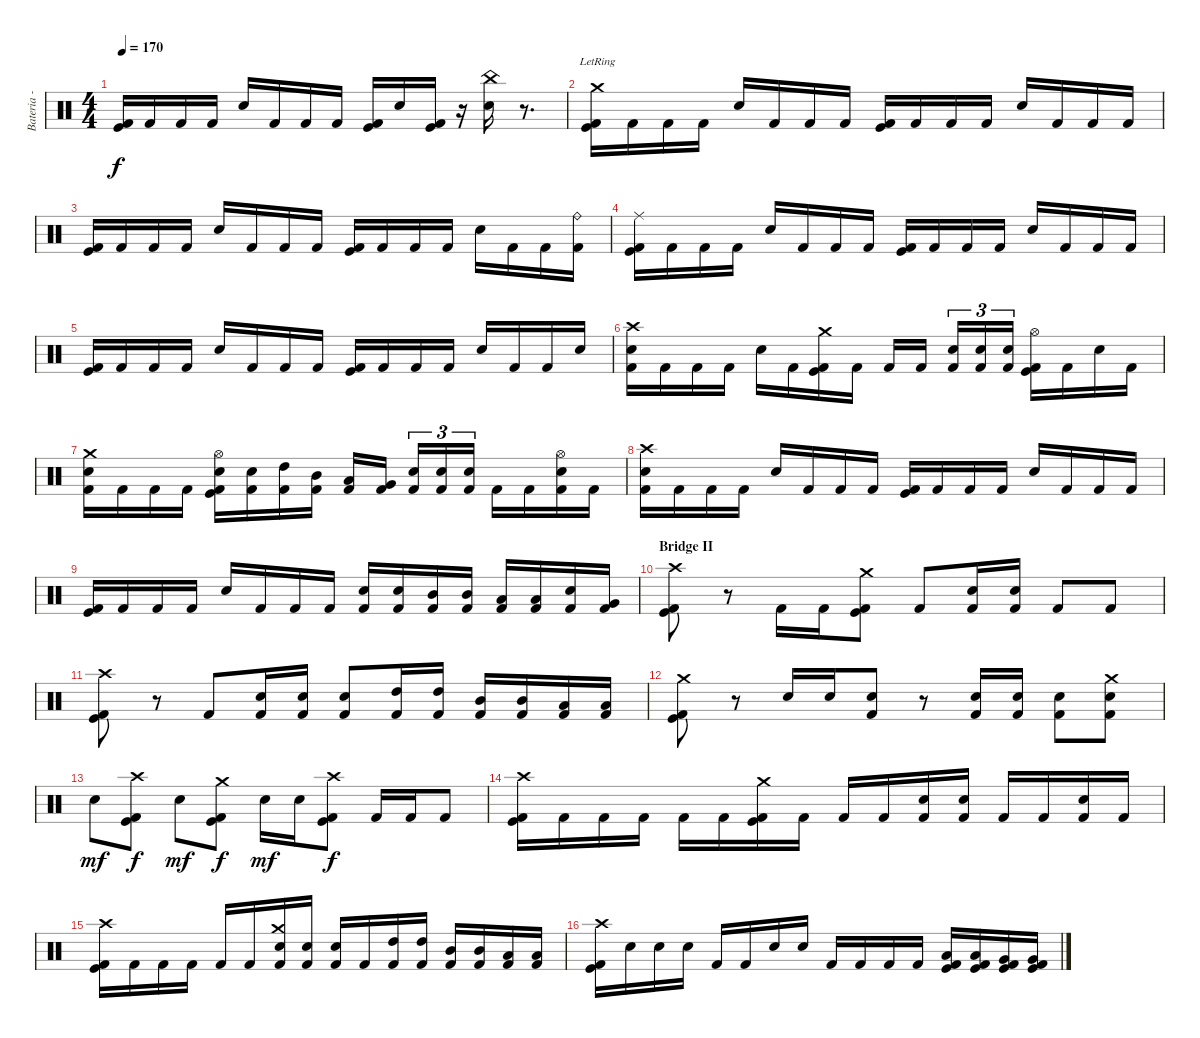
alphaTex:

\track ("Bateria - Drums" "Bateria - ") {instrument percussion}
\staff {score}
\articulation defaults
\ts (4 4)
\tempo 170
\clef neutral
\ks c
("Kick (hit)" "Kick (hit) 2").16{dy f} "Kick (hit) 2".16 "Kick (hit) 2".16 "Kick (hit) 2".16 "Snare (hit) 2".16 "Kick (hit) 2".16 "Kick (hit) 2".16 "Kick (hit) 2".16 ("Kick (hit)" "Kick (hit) 2").16 "Snare (hit) 2".16 ("Kick (hit)" "Kick (hit) 2").16 r.16 ("China (hit)" "Snare (hit) 2").16 r.8{d} |
("Crash medium (hit)"{lr} "Kick (hit)" "Kick (hit) 2").16 "Kick (hit) 2".16 "Kick (hit) 2".16 "Kick (hit) 2".16 "Snare (hit) 2".16 "Kick (hit) 2".16 "Kick (hit) 2".16 "Kick (hit) 2".16 ("Kick (hit)" "Kick (hit) 2").16 "Kick (hit) 2".16 "Kick (hit) 2".16 "Kick (hit) 2".16 "Snare (hit) 2".16 "Kick (hit) 2".16 "Kick (hit) 2".16 "Kick (hit) 2".16 |
("Kick (hit)" "Kick (hit) 2").16 "Kick (hit) 2".16 "Kick (hit) 2".16 "Kick (hit) 2".16 "Snare (hit) 2".16 "Kick (hit) 2".16 "Kick (hit) 2".16 "Kick (hit) 2".16 ("Kick (hit)" "Kick (hit) 2").16 "Kick (hit) 2".16 "Kick (hit) 2".16 "Kick (hit) 2".16 "Snare (hit) 2".16 "Kick (hit) 2".16 "Kick (hit) 2".16 ("Ride (bell)" "Kick (hit) 2").16 |
("Ride (middle)" "Kick (hit)" "Kick (hit) 2").16 "Kick (hit) 2".16 "Kick (hit) 2".16 "Kick (hit) 2".16 "Snare (hit) 2".16 "Kick (hit) 2".16 "Kick (hit) 2".16 "Kick (hit) 2".16 ("Kick (hit)" "Kick (hit) 2").16 "Kick (hit) 2".16 "Kick (hit) 2".16 "Kick (hit) 2".16 "Snare (hit) 2".16 "Kick (hit) 2".16 "Kick (hit) 2".16 "Kick (hit) 2".16 |
("Kick (hit)" "Kick (hit) 2").16 "Kick (hit) 2".16 "Kick (hit) 2".16 "Kick (hit) 2".16 "Snare (hit) 2".16 "Kick (hit) 2".16 "Kick (hit) 2".16 "Kick (hit) 2".16 ("Kick (hit)" "Kick (hit) 2").16 "Kick (hit) 2".16 "Kick (hit) 2".16 "Kick (hit) 2".16 "Snare (hit) 2".16 "Kick (hit) 2".16 "Kick (hit) 2".16 "Snare (hit) 2".16 |
("Crash high (hit)" "Snare (hit) 2" "Kick (hit) 2").16 "Kick (hit) 2".16 "Kick (hit) 2".16 "Kick (hit) 2".16 "Snare (hit) 2".16 "Kick (hit) 2".16 ("Crash medium (hit)" "Kick (hit)" "Kick (hit) 2").16 "Kick (hit) 2".16 "Kick (hit) 2".16 "Kick (hit) 2".16 ("Snare (hit) 2" "Kick (hit) 2").16{tu (3 2)} ("Snare (hit) 2" "Kick (hit) 2").16{tu (3 2)} ("Snare (hit) 2" "Kick (hit) 2").16{tu (3 2)} ("Hi-Hat (open)" "Kick (hit)" "Kick (hit) 2").16 "Kick (hit) 2".16 "Snare (hit) 2".16 "Kick (hit) 2".16 |
("Crash medium (hit)" "Snare (hit) 2" "Kick (hit) 2").16 "Kick (hit) 2".16 "Kick (hit) 2".16 "Kick (hit) 2".16 ("Hi-Hat (open)" "Snare (hit) 2" "Kick (hit)" "Kick (hit) 2").16 ("Snare (hit) 2" "Kick (hit) 2").16 ("High Tom (hit)" "Kick (hit) 2").16 ("Mid Tom (hit)" "Kick (hit) 2").16 ("Low Tom (hit)" "Kick (hit) 2").16 ("Very Low Tom (hit)" "Kick (hit) 2").16 ("Electric Snare (hit)" "Kick (hit) 2").16{tu (3 2)} ("Electric Snare (hit)" "Kick (hit) 2").16{tu (3 2)} ("Electric Snare (hit)" "Kick (hit) 2").16{tu (3 2)} "Kick (hit) 2".16 "Kick (hit) 2".16 ("Hi-Hat (open)" "Snare (hit) 2" "Kick (hit) 2").16 "Kick (hit) 2".16 |
("Crash high (hit)" "Snare (hit) 2" "Kick (hit) 2").16 "Kick (hit) 2".16 "Kick (hit) 2".16 "Kick (hit) 2".16 "Snare (hit) 2".16 "Kick (hit) 2".16 "Kick (hit) 2".16 "Kick (hit) 2".16 ("Kick (hit)" "Kick (hit) 2").16 "Kick (hit) 2".16 "Kick (hit) 2".16 "Kick (hit) 2".16 "Snare (hit) 2".16 "Kick (hit) 2".16 "Kick (hit) 2".16 "Kick (hit) 2".16 |
("Kick (hit)" "Kick (hit) 2").16 "Kick (hit) 2".16 "Kick (hit) 2".16 "Kick (hit) 2".16 "Snare (hit) 2".16 "Kick (hit) 2".16 "Kick (hit) 2".16 "Kick (hit) 2".16 ("Electric Snare (hit)" "Kick (hit) 2").16 ("Electric Snare (hit)" "Kick (hit) 2").16 ("Mid Tom (hit)" "Kick (hit) 2").16 ("Mid Tom (hit)" "Kick (hit) 2").16 ("Low Tom (hit)" "Kick (hit) 2").16 ("Low Tom (hit)" "Kick (hit) 2").16 ("Electric Snare (hit)" "Kick (hit) 2").16 ("Very Low Tom (hit)" "Kick (hit) 2").16 |
\section ("" "Bridge II")
("Crash high (hit)" "Kick (hit)" "Kick (hit) 2").8 r.8 "Kick (hit) 2".16 "Kick (hit) 2".16 ("Crash medium (hit)" "Kick (hit)" "Kick (hit) 2").8 "Kick (hit) 2".8 ("Electric Snare (hit)" "Kick (hit) 2").16 ("Electric Snare (hit)" "Kick (hit) 2").16 "Kick (hit) 2".8 "Kick (hit) 2".8 |
("Crash high (hit)" "Kick (hit)" "Kick (hit) 2").8 r.8 "Kick (hit) 2".8 ("Electric Snare (hit)" "Kick (hit) 2").16 ("Electric Snare (hit)" "Kick (hit) 2").16 ("Electric Snare (hit)" "Kick (hit) 2").8 ("High Tom (hit)" "Kick (hit) 2").16 ("High Tom (hit)" "Kick (hit) 2").16 ("Mid Tom (hit)" "Kick (hit) 2").16 ("Mid Tom (hit)" "Kick (hit) 2").16 ("Low Tom (hit)" "Kick (hit) 2").16 ("Low Tom (hit)" "Kick (hit) 2").16 |
("Crash medium (hit)" "Kick (hit)" "Kick (hit) 2").8 r.8 "Electric Snare (hit)".16 "Electric Snare (hit)".16 ("Electric Snare (hit)" "Kick (hit) 2").8 r.8 ("Snare (hit) 2" "Kick (hit) 2").16 ("Snare (hit) 2" "Kick (hit) 2").16 ("Snare (hit) 2" "Kick (hit) 2").8 ("Crash medium (hit)" "Snare (hit) 2" "Kick (hit) 2").8 |
"Snare (hit) 2".8{dy mf} ("Crash high (hit)" "Kick (hit)" "Kick (hit) 2").8{dy f} "Snare (hit) 2".8{dy mf} ("Crash medium (hit)" "Kick (hit)" "Kick (hit) 2").8{dy f} "Snare (hit) 2".16{dy mf} "Snare (hit) 2".16 ("Crash high (hit)" "Kick (hit)" "Kick (hit) 2").8{dy f} "Kick (hit) 2".16 "Kick (hit) 2".16 "Kick (hit) 2".8 |
("Crash high (hit)" "Kick (hit)" "Kick (hit) 2").16 "Kick (hit) 2".16 "Kick (hit) 2".16 "Kick (hit) 2".16 "Kick (hit) 2".16 "Kick (hit) 2".16 ("Crash medium (hit)" "Kick (hit)" "Kick (hit) 2").16 "Kick (hit) 2".16 "Kick (hit) 2".16 "Kick (hit) 2".16 ("Electric Snare (hit)" "Kick (hit) 2").16 ("Electric Snare (hit)" "Kick (hit) 2").16 "Kick (hit) 2".16 "Kick (hit) 2".16 ("Electric Snare (hit)" "Kick (hit) 2").16 "Kick (hit) 2".16 |
("Crash high (hit)" "Kick (hit)" "Kick (hit) 2").16 "Kick (hit) 2".16 "Kick (hit) 2".16 "Kick (hit) 2".16 "Kick (hit) 2".16 "Kick (hit) 2".16 ("Crash medium (hit)" "Electric Snare (hit)" "Kick (hit) 2").16 ("Electric Snare (hit)" "Kick (hit) 2").16 ("Electric Snare (hit)" "Kick (hit) 2").16 "Kick (hit) 2".16 ("High Tom (hit)" "Kick (hit) 2").16 ("High Tom (hit)" "Kick (hit) 2").16 ("Mid Tom (hit)" "Kick (hit) 2").16 ("Mid Tom (hit)" "Kick (hit) 2").16 ("Low Tom (hit)" "Kick (hit) 2").16 ("Low Tom (hit)" "Kick (hit) 2").16 |
("Crash high (hit)" "Kick (hit)" "Kick (hit) 2").16 "Snare (hit) 2".16 "Snare (hit) 2".16 "Snare (hit) 2".16 "Kick (hit) 2".16 "Kick (hit) 2".16 "Electric Snare (hit)".16 "Electric Snare (hit)".16 "Kick (hit) 2".16 "Kick (hit) 2".16 "Kick (hit) 2".16 "Kick (hit) 2".16 ("Low Tom (hit)" "Kick (hit)" "Kick (hit) 2").16 ("Low Tom (hit)" "Kick (hit)" "Kick (hit) 2").16 ("Very Low Tom (hit)" "Kick (hit)" "Kick (hit) 2").16 ("Very Low Tom (hit)" "Kick (hit)" "Kick (hit) 2").16
